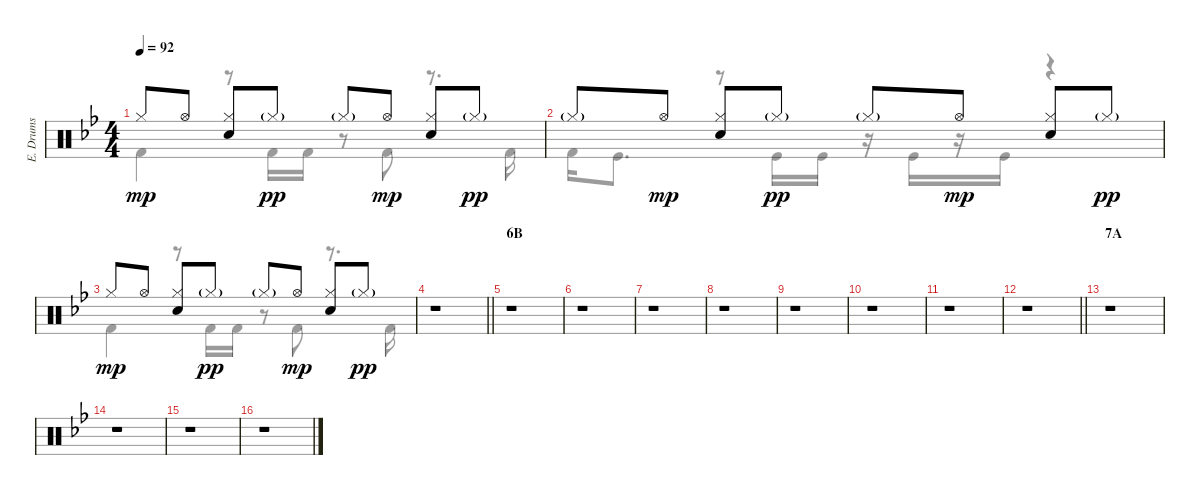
\track ("E. Drums" "E. Drums") {instrument percussion}
\staff {score}
\articulation defaults
\voice
\ts (4 4)
\tempo 92
\clef neutral
\ks bb "Hi-Hat (closed)".8{dy mp} "Hi-Hat (open)".8
("Hi-Hat (closed)" "Electric Snare (hit)").8 "Hi-Hat (closed)"{g}.8{dy pp} "Hi-Hat (closed)"{g}.8 "Hi-Hat (open)".8{dy mp} ("Hi-Hat (closed)" "Electric Snare (hit)").8 "Hi-Hat (closed)"{g}.8{dy pp} |
"Hi-Hat (closed)"{g}.8 "Hi-Hat (open)".8{dy mp} ("Hi-Hat (closed)" "Electric Snare (hit)").8 "Hi-Hat (closed)"{g}.8{dy pp} "Hi-Hat (closed)"{g}.8 "Hi-Hat (open)".8{dy mp} ("Hi-Hat (closed)" "Electric Snare (hit)").8 "Hi-Hat (closed)"{g}.8{dy pp} |
"Hi-Hat (closed)".8{dy mp} "Hi-Hat (open)".8 ("Hi-Hat (closed)" "Electric Snare (hit)").8 "Hi-Hat (closed)"{g}.8{dy pp} "Hi-Hat (closed)"{g}.8 "Hi-Hat (open)".8{dy mp} ("Hi-Hat (closed)" "Electric Snare (hit)").8 "Hi-Hat (closed)"{g}.8{dy pp} |
\barLineRight lightlight
r.1 |
\section ("" "6B")
r.1 |
r.1 |
r.1 |
r.1 |
r.1 |
r.1 |
r.1 |
\barLineRight lightlight
r.1 |
\section ("" "7A")
r.1 |
r.1 |
r.1 |
r.1
\voice
\clef neutral
\ottava regular
\simile none
\ks bb "Kick (hit) 2".4{dy mp}
r.8 "Kick (hit) 2".16 "Kick (hit) 2".16 r.8 "Kick (hit) 2".8 r.8{d} "Kick (hit) 2".16 |
"Kick (hit) 2".16 "Kick (hit)".8{d} r.8 "Kick (hit)".16 "Kick (hit)".16 r.16 "Kick (hit)".16 r.16 "Kick (hit)".16 r.4 |
"Kick (hit) 2".4 r.8 "Kick (hit) 2".16 "Kick (hit) 2".16 r.8 "Kick (hit) 2".8 r.8{d} "Kick (hit) 2".16 |
\barLineRight lightlight
r.1 |
r.1 |
r.1 |
r.1 |
r.1 |
r.1 |
r.1 |
r.1 |
\barLineRight lightlight
r.1 |
r.1 |
r.1 |
r.1 |
r.1
